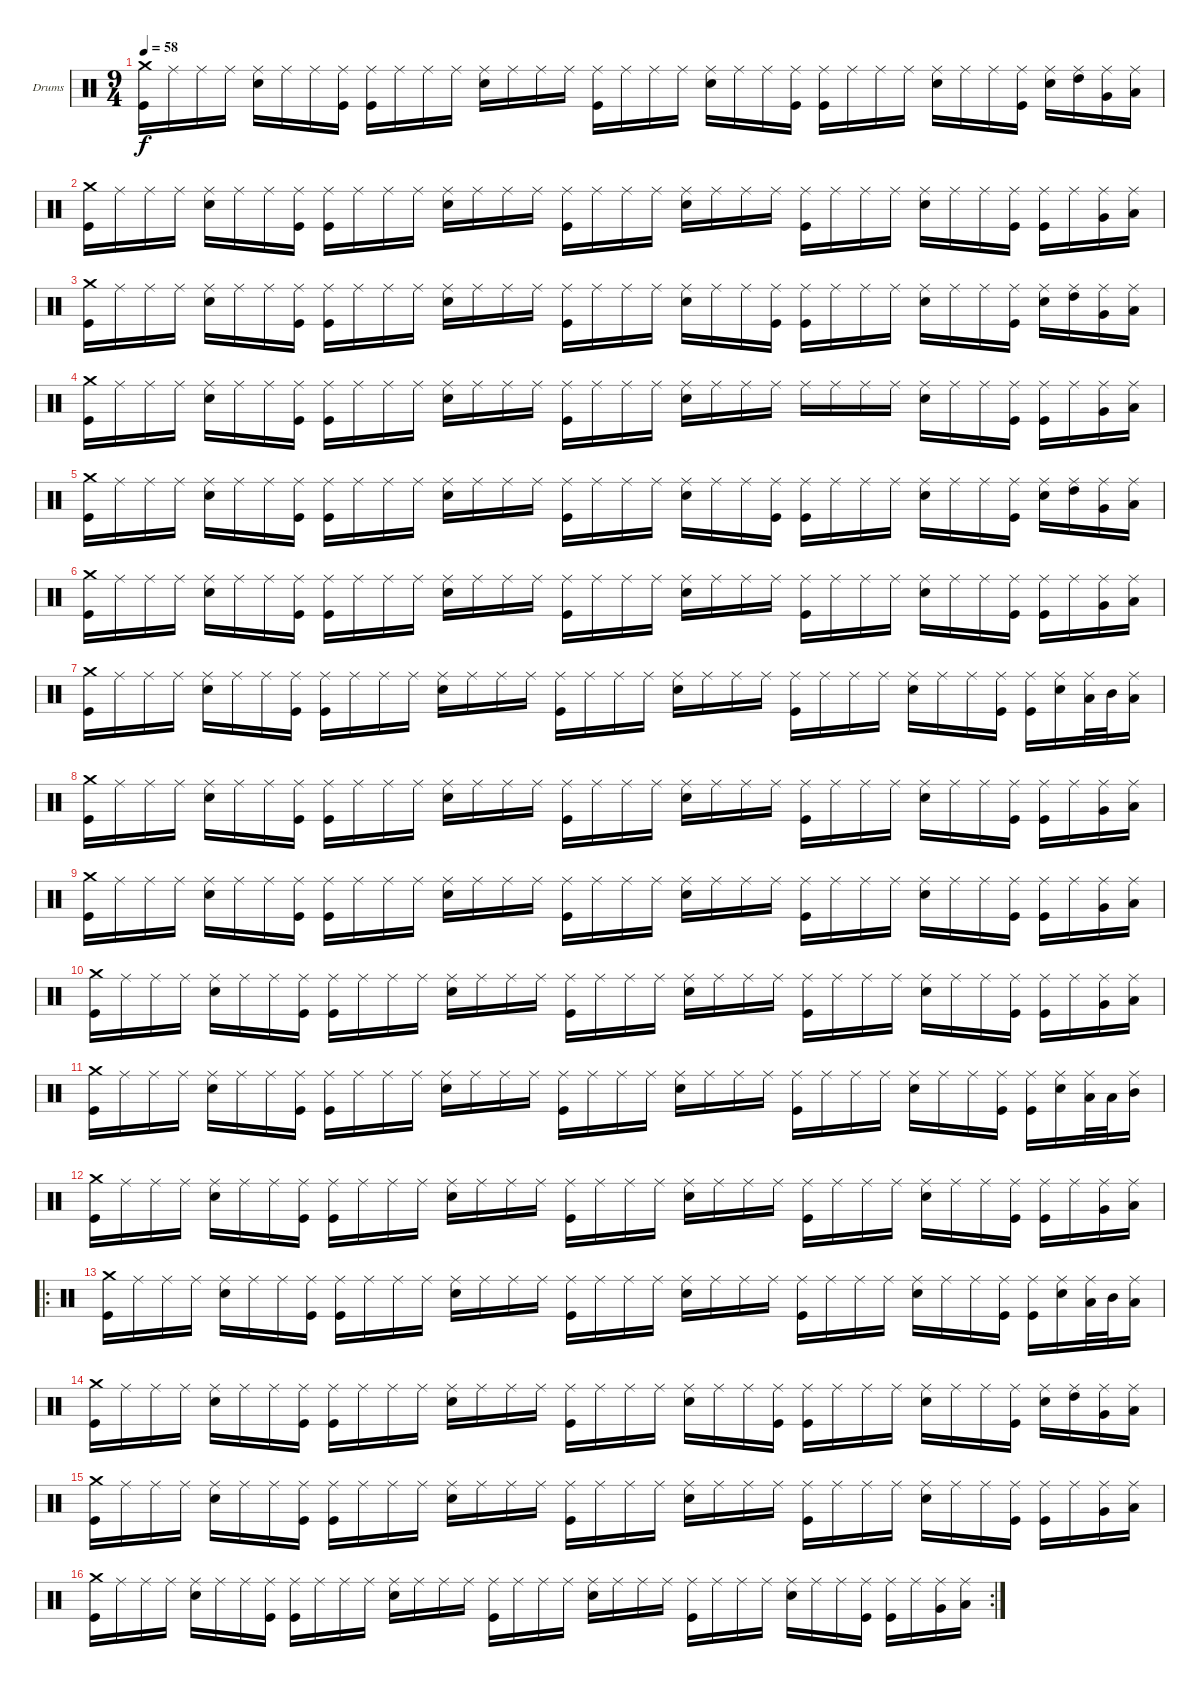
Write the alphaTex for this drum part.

\defaultSystemsLayout 4
\bracketExtendMode groupsimilarinstruments
\firstSystemTrackNameOrientation horizontal
\otherSystemsTrackNameOrientation horizontal
\track ("Drumkit" "Drums") {instrument percussion}
\staff {score}
\articulation defaults
\ts (9 4)
\tempo 58
\clef neutral
\scale
0.333333
\ks c
("Crash medium (hit)" "Kick (hit)").16{dy f} "Ride (middle)".16 "Ride (middle)".16 "Ride (middle)".16 ("Ride (middle)" "Snare (hit) 2").16 "Ride (middle)".16 "Ride (middle)".16 ("Ride (middle)" "Kick (hit)").16 ("Ride (middle)" "Kick (hit)").16 "Ride (middle)".16 "Ride (middle)".16 "Ride (middle)".16 ("Ride (middle)" "Snare (hit) 2").16 "Ride (middle)".16 "Ride (middle)".16 "Ride (middle)".16 ("Ride (middle)" "Kick (hit)").16 "Ride (middle)".16 "Ride (middle)".16 "Ride (middle)".16 ("Ride (middle)" "Snare (hit) 2").16 "Ride (middle)".16 "Ride (middle)".16 ("Ride (middle)" "Kick (hit)").16 ("Ride (middle)" "Kick (hit)").16 "Ride (middle)".16 "Ride (middle)".16 "Ride (middle)".16 ("Ride (middle)" "Snare (hit) 2").16 "Ride (middle)".16 "Ride (middle)".16 ("Ride (middle)" "Kick (hit)").16 ("Ride (middle)" "Snare (hit) 2").16 ("Ride (middle)" "High Tom (hit)").16 ("Ride (middle)" "Very Low Tom (hit)").16 ("Ride (middle)" "Low Tom (hit)").16 |
\scale
0.333333 ("Crash medium (hit)" "Kick (hit)").16 "Ride (middle)".16 "Ride (middle)".16 "Ride (middle)".16 ("Ride (middle)" "Snare (hit) 2").16 "Ride (middle)".16 "Ride (middle)".16 ("Ride (middle)" "Kick (hit)").16 ("Ride (middle)" "Kick (hit)").16 "Ride (middle)".16 "Ride (middle)".16 "Ride (middle)".16 ("Ride (middle)" "Snare (hit) 2").16 "Ride (middle)".16 "Ride (middle)".16 "Ride (middle)".16 ("Ride (middle)" "Kick (hit)").16 "Ride (middle)".16 "Ride (middle)".16 "Ride (middle)".16 ("Ride (middle)" "Snare (hit) 2").16 "Ride (middle)".16 "Ride (middle)".16 "Ride (middle)".16 ("Ride (middle)" "Kick (hit)").16 "Ride (middle)".16 "Ride (middle)".16 "Ride (middle)".16 ("Ride (middle)" "Snare (hit) 2").16 "Ride (middle)".16 "Ride (middle)".16 ("Ride (middle)" "Kick (hit)").16 ("Ride (middle)" "Kick (hit)").16 "Ride (middle)".16 ("Ride (middle)" "Very Low Tom (hit)").16 ("Ride (middle)" "Low Tom (hit)").16 |
\scale
0.333333 ("Crash medium (hit)" "Kick (hit)").16 "Ride (middle)".16 "Ride (middle)".16 "Ride (middle)".16 ("Ride (middle)" "Snare (hit) 2").16 "Ride (middle)".16 "Ride (middle)".16 ("Ride (middle)" "Kick (hit)").16 ("Ride (middle)" "Kick (hit)").16 "Ride (middle)".16 "Ride (middle)".16 "Ride (middle)".16 ("Ride (middle)" "Snare (hit) 2").16 "Ride (middle)".16 "Ride (middle)".16 "Ride (middle)".16 ("Ride (middle)" "Kick (hit)").16 "Ride (middle)".16 "Ride (middle)".16 "Ride (middle)".16 ("Ride (middle)" "Snare (hit) 2").16 "Ride (middle)".16 "Ride (middle)".16 ("Ride (middle)" "Kick (hit)").16 ("Ride (middle)" "Kick (hit)").16 "Ride (middle)".16 "Ride (middle)".16 "Ride (middle)".16 ("Ride (middle)" "Snare (hit) 2").16 "Ride (middle)".16 "Ride (middle)".16 ("Ride (middle)" "Kick (hit)").16 ("Ride (middle)" "Snare (hit) 2").16 ("Ride (middle)" "High Tom (hit)").16 ("Ride (middle)" "Very Low Tom (hit)").16 ("Ride (middle)" "Low Tom (hit)").16 |
\scale
0.333333 ("Crash medium (hit)" "Kick (hit)").16 "Ride (middle)".16 "Ride (middle)".16 "Ride (middle)".16 ("Ride (middle)" "Snare (hit) 2").16 "Ride (middle)".16 "Ride (middle)".16 ("Ride (middle)" "Kick (hit)").16 ("Ride (middle)" "Kick (hit)").16 "Ride (middle)".16 "Ride (middle)".16 "Ride (middle)".16 ("Ride (middle)" "Snare (hit) 2").16 "Ride (middle)".16 "Ride (middle)".16 "Ride (middle)".16 ("Ride (middle)" "Kick (hit)").16 "Ride (middle)".16 "Ride (middle)".16 "Ride (middle)".16 ("Ride (middle)" "Snare (hit) 2").16 "Ride (middle)".16 "Ride (middle)".16 "Ride (middle)".16 "Ride (middle)".16 "Ride (middle)".16 "Ride (middle)".16 "Ride (middle)".16 ("Ride (middle)" "Snare (hit) 2").16 "Ride (middle)".16 "Ride (middle)".16 ("Ride (middle)" "Kick (hit)").16 ("Ride (middle)" "Kick (hit)").16 "Ride (middle)".16 ("Ride (middle)" "Very Low Tom (hit)").16 ("Ride (middle)" "Low Tom (hit)").16 |
\scale
0.333333 ("Crash medium (hit)" "Kick (hit)").16 "Ride (middle)".16 "Ride (middle)".16 "Ride (middle)".16 ("Ride (middle)" "Snare (hit) 2").16 "Ride (middle)".16 "Ride (middle)".16 ("Ride (middle)" "Kick (hit)").16 ("Ride (middle)" "Kick (hit)").16 "Ride (middle)".16 "Ride (middle)".16 "Ride (middle)".16 ("Ride (middle)" "Snare (hit) 2").16 "Ride (middle)".16 "Ride (middle)".16 "Ride (middle)".16 ("Ride (middle)" "Kick (hit)").16 "Ride (middle)".16 "Ride (middle)".16 "Ride (middle)".16 ("Ride (middle)" "Snare (hit) 2").16 "Ride (middle)".16 "Ride (middle)".16 ("Ride (middle)" "Kick (hit)").16 ("Ride (middle)" "Kick (hit)").16 "Ride (middle)".16 "Ride (middle)".16 "Ride (middle)".16 ("Ride (middle)" "Snare (hit) 2").16 "Ride (middle)".16 "Ride (middle)".16 ("Ride (middle)" "Kick (hit)").16 ("Ride (middle)" "Snare (hit) 2").16 ("Ride (middle)" "High Tom (hit)").16 ("Ride (middle)" "Very Low Tom (hit)").16 ("Ride (middle)" "Low Tom (hit)").16 |
\scale
0.333333 ("Crash medium (hit)" "Kick (hit)").16 "Ride (middle)".16 "Ride (middle)".16 "Ride (middle)".16 ("Ride (middle)" "Snare (hit) 2").16 "Ride (middle)".16 "Ride (middle)".16 ("Ride (middle)" "Kick (hit)").16 ("Ride (middle)" "Kick (hit)").16 "Ride (middle)".16 "Ride (middle)".16 "Ride (middle)".16 ("Ride (middle)" "Snare (hit) 2").16 "Ride (middle)".16 "Ride (middle)".16 "Ride (middle)".16 ("Ride (middle)" "Kick (hit)").16 "Ride (middle)".16 "Ride (middle)".16 "Ride (middle)".16 ("Ride (middle)" "Snare (hit) 2").16 "Ride (middle)".16 "Ride (middle)".16 "Ride (middle)".16 ("Ride (middle)" "Kick (hit)").16 "Ride (middle)".16 "Ride (middle)".16 "Ride (middle)".16 ("Ride (middle)" "Snare (hit) 2").16 "Ride (middle)".16 "Ride (middle)".16 ("Ride (middle)" "Kick (hit)").16 ("Ride (middle)" "Kick (hit)").16 "Ride (middle)".16 ("Ride (middle)" "Very Low Tom (hit)").16 ("Ride (middle)" "Low Tom (hit)").16 |
\scale
0.333333 ("Crash medium (hit)" "Kick (hit)").16 "Ride (middle)".16 "Ride (middle)".16 "Ride (middle)".16 ("Ride (middle)" "Snare (hit) 2").16 "Ride (middle)".16 "Ride (middle)".16 ("Ride (middle)" "Kick (hit)").16 ("Ride (middle)" "Kick (hit)").16 "Ride (middle)".16 "Ride (middle)".16 "Ride (middle)".16 ("Ride (middle)" "Snare (hit) 2").16 "Ride (middle)".16 "Ride (middle)".16 "Ride (middle)".16 ("Ride (middle)" "Kick (hit)").16 "Ride (middle)".16 "Ride (middle)".16 "Ride (middle)".16 ("Ride (middle)" "Snare (hit) 2").16 "Ride (middle)".16 "Ride (middle)".16 "Ride (middle)".16 ("Ride (middle)" "Kick (hit)").16 "Ride (middle)".16 "Ride (middle)".16 "Ride (middle)".16 ("Ride (middle)" "Snare (hit) 2").16 "Ride (middle)".16 "Ride (middle)".16 ("Ride (middle)" "Kick (hit)").16 ("Ride (middle)" "Kick (hit)").16 ("Ride (middle)" "Snare (hit) 2").16 ("Ride (middle)" "Low Tom (hit)").32 "Mid Tom (hit)".32 ("Ride (middle)" "Low Tom (hit)").16 |
\scale
0.333333 ("Crash medium (hit)" "Kick (hit)").16 "Ride (middle)".16 "Ride (middle)".16 "Ride (middle)".16 ("Ride (middle)" "Snare (hit) 2").16 "Ride (middle)".16 "Ride (middle)".16 ("Ride (middle)" "Kick (hit)").16 ("Ride (middle)" "Kick (hit)").16 "Ride (middle)".16 "Ride (middle)".16 "Ride (middle)".16 ("Ride (middle)" "Snare (hit) 2").16 "Ride (middle)".16 "Ride (middle)".16 "Ride (middle)".16 ("Ride (middle)" "Kick (hit)").16 "Ride (middle)".16 "Ride (middle)".16 "Ride (middle)".16 ("Ride (middle)" "Snare (hit) 2").16 "Ride (middle)".16 "Ride (middle)".16 "Ride (middle)".16 ("Ride (middle)" "Kick (hit)").16 "Ride (middle)".16 "Ride (middle)".16 "Ride (middle)".16 ("Ride (middle)" "Snare (hit) 2").16 "Ride (middle)".16 "Ride (middle)".16 ("Ride (middle)" "Kick (hit)").16 ("Ride (middle)" "Kick (hit)").16 "Ride (middle)".16 ("Ride (middle)" "Very Low Tom (hit)").16 ("Ride (middle)" "Low Tom (hit)").16 |
\scale
0.333333 ("Crash medium (hit)" "Kick (hit)").16 "Ride (middle)".16 "Ride (middle)".16 "Ride (middle)".16 ("Ride (middle)" "Snare (hit) 2").16 "Ride (middle)".16 "Ride (middle)".16 ("Ride (middle)" "Kick (hit)").16 ("Ride (middle)" "Kick (hit)").16 "Ride (middle)".16 "Ride (middle)".16 "Ride (middle)".16 ("Ride (middle)" "Snare (hit) 2").16 "Ride (middle)".16 "Ride (middle)".16 "Ride (middle)".16 ("Ride (middle)" "Kick (hit)").16 "Ride (middle)".16 "Ride (middle)".16 "Ride (middle)".16 ("Ride (middle)" "Snare (hit) 2").16 "Ride (middle)".16 "Ride (middle)".16 "Ride (middle)".16 ("Ride (middle)" "Kick (hit)").16 "Ride (middle)".16 "Ride (middle)".16 "Ride (middle)".16 ("Ride (middle)" "Snare (hit) 2").16 "Ride (middle)".16 "Ride (middle)".16 ("Ride (middle)" "Kick (hit)").16 ("Ride (middle)" "Kick (hit)").16 "Ride (middle)".16 ("Ride (middle)" "Very Low Tom (hit)").16 ("Ride (middle)" "Low Tom (hit)").16 |
\scale
0.333333 ("Crash medium (hit)" "Kick (hit)").16 "Ride (middle)".16 "Ride (middle)".16 "Ride (middle)".16 ("Ride (middle)" "Snare (hit) 2").16 "Ride (middle)".16 "Ride (middle)".16 ("Ride (middle)" "Kick (hit)").16 ("Ride (middle)" "Kick (hit)").16 "Ride (middle)".16 "Ride (middle)".16 "Ride (middle)".16 ("Ride (middle)" "Snare (hit) 2").16 "Ride (middle)".16 "Ride (middle)".16 "Ride (middle)".16 ("Ride (middle)" "Kick (hit)").16 "Ride (middle)".16 "Ride (middle)".16 "Ride (middle)".16 ("Ride (middle)" "Snare (hit) 2").16 "Ride (middle)".16 "Ride (middle)".16 "Ride (middle)".16 ("Ride (middle)" "Kick (hit)").16 "Ride (middle)".16 "Ride (middle)".16 "Ride (middle)".16 ("Ride (middle)" "Snare (hit) 2").16 "Ride (middle)".16 "Ride (middle)".16 ("Ride (middle)" "Kick (hit)").16 ("Ride (middle)" "Kick (hit)").16 "Ride (middle)".16 ("Ride (middle)" "Very Low Tom (hit)").16 ("Ride (middle)" "Low Tom (hit)").16 |
\scale
0.333333 ("Crash medium (hit)" "Kick (hit)").16 "Ride (middle)".16 "Ride (middle)".16 "Ride (middle)".16 ("Ride (middle)" "Snare (hit) 2").16 "Ride (middle)".16 "Ride (middle)".16 ("Ride (middle)" "Kick (hit)").16 ("Ride (middle)" "Kick (hit)").16 "Ride (middle)".16 "Ride (middle)".16 "Ride (middle)".16 ("Ride (middle)" "Snare (hit) 2").16 "Ride (middle)".16 "Ride (middle)".16 "Ride (middle)".16 ("Ride (middle)" "Kick (hit)").16 "Ride (middle)".16 "Ride (middle)".16 "Ride (middle)".16 ("Ride (middle)" "Snare (hit) 2").16 "Ride (middle)".16 "Ride (middle)".16 "Ride (middle)".16 ("Ride (middle)" "Kick (hit)").16 "Ride (middle)".16 "Ride (middle)".16 "Ride (middle)".16 ("Ride (middle)" "Snare (hit) 2").16 "Ride (middle)".16 "Ride (middle)".16 ("Ride (middle)" "Kick (hit)").16 ("Ride (middle)" "Kick (hit)").16 ("Ride (middle)" "Snare (hit) 2").16 ("Ride (middle)" "Low Tom (hit)").32 "Low Tom (hit)".32 ("Ride (middle)" "Mid Tom (hit)").16 |
\scale
0.311111 ("Crash medium (hit)" "Kick (hit)").16 "Ride (middle)".16 "Ride (middle)".16 "Ride (middle)".16 ("Ride (middle)" "Snare (hit) 2").16 "Ride (middle)".16 "Ride (middle)".16 ("Ride (middle)" "Kick (hit)").16 ("Ride (middle)" "Kick (hit)").16 "Ride (middle)".16 "Ride (middle)".16 "Ride (middle)".16 ("Ride (middle)" "Snare (hit) 2").16 "Ride (middle)".16 "Ride (middle)".16 "Ride (middle)".16 ("Ride (middle)" "Kick (hit)").16 "Ride (middle)".16 "Ride (middle)".16 "Ride (middle)".16 ("Ride (middle)" "Snare (hit) 2").16 "Ride (middle)".16 "Ride (middle)".16 "Ride (middle)".16 ("Ride (middle)" "Kick (hit)").16 "Ride (middle)".16 "Ride (middle)".16 "Ride (middle)".16 ("Ride (middle)" "Snare (hit) 2").16 "Ride (middle)".16 "Ride (middle)".16 ("Ride (middle)" "Kick (hit)").16 ("Ride (middle)" "Kick (hit)").16 "Ride (middle)".16 ("Ride (middle)" "Very Low Tom (hit)").16 ("Ride (middle)" "Low Tom (hit)").16 |
\ro
\scale
0.377778 ("Crash medium (hit)" "Kick (hit)").16 "Ride (middle)".16 "Ride (middle)".16 "Ride (middle)".16 ("Ride (middle)" "Snare (hit) 2").16 "Ride (middle)".16 "Ride (middle)".16 ("Ride (middle)" "Kick (hit)").16 ("Ride (middle)" "Kick (hit)").16 "Ride (middle)".16 "Ride (middle)".16 "Ride (middle)".16 ("Ride (middle)" "Snare (hit) 2").16 "Ride (middle)".16 "Ride (middle)".16 "Ride (middle)".16 ("Ride (middle)" "Kick (hit)").16 "Ride (middle)".16 "Ride (middle)".16 "Ride (middle)".16 ("Ride (middle)" "Snare (hit) 2").16 "Ride (middle)".16 "Ride (middle)".16 "Ride (middle)".16 ("Ride (middle)" "Kick (hit)").16 "Ride (middle)".16 "Ride (middle)".16 "Ride (middle)".16 ("Ride (middle)" "Snare (hit) 2").16 "Ride (middle)".16 "Ride (middle)".16 ("Ride (middle)" "Kick (hit)").16 ("Ride (middle)" "Kick (hit)").16 ("Ride (middle)" "Snare (hit) 2").16 ("Ride (middle)" "Low Tom (hit)").32 "Mid Tom (hit)".32 ("Ride (middle)" "Low Tom (hit)").16 |
\scale
0.311111 ("Crash medium (hit)" "Kick (hit)").16 "Ride (middle)".16 "Ride (middle)".16 "Ride (middle)".16 ("Ride (middle)" "Snare (hit) 2").16 "Ride (middle)".16 "Ride (middle)".16 ("Ride (middle)" "Kick (hit)").16 ("Ride (middle)" "Kick (hit)").16 "Ride (middle)".16 "Ride (middle)".16 "Ride (middle)".16 ("Ride (middle)" "Snare (hit) 2").16 "Ride (middle)".16 "Ride (middle)".16 "Ride (middle)".16 ("Ride (middle)" "Kick (hit)").16 "Ride (middle)".16 "Ride (middle)".16 "Ride (middle)".16 ("Ride (middle)" "Snare (hit) 2").16 "Ride (middle)".16 "Ride (middle)".16 ("Ride (middle)" "Kick (hit)").16 ("Ride (middle)" "Kick (hit)").16 "Ride (middle)".16 "Ride (middle)".16 "Ride (middle)".16 ("Ride (middle)" "Snare (hit) 2").16 "Ride (middle)".16 "Ride (middle)".16 ("Ride (middle)" "Kick (hit)").16 ("Ride (middle)" "Snare (hit) 2").16 ("Ride (middle)" "High Tom (hit)").16 ("Ride (middle)" "Very Low Tom (hit)").16 ("Ride (middle)" "Low Tom (hit)").16 |
\scale
0.291667 ("Crash medium (hit)" "Kick (hit)").16 "Ride (middle)".16 "Ride (middle)".16 "Ride (middle)".16 ("Ride (middle)" "Snare (hit) 2").16 "Ride (middle)".16 "Ride (middle)".16 ("Ride (middle)" "Kick (hit)").16 ("Ride (middle)" "Kick (hit)").16 "Ride (middle)".16 "Ride (middle)".16 "Ride (middle)".16 ("Ride (middle)" "Snare (hit) 2").16 "Ride (middle)".16 "Ride (middle)".16 "Ride (middle)".16 ("Ride (middle)" "Kick (hit)").16 "Ride (middle)".16 "Ride (middle)".16 "Ride (middle)".16 ("Ride (middle)" "Snare (hit) 2").16 "Ride (middle)".16 "Ride (middle)".16 "Ride (middle)".16 ("Ride (middle)" "Kick (hit)").16 "Ride (middle)".16 "Ride (middle)".16 "Ride (middle)".16 ("Ride (middle)" "Snare (hit) 2").16 "Ride (middle)".16 "Ride (middle)".16 ("Ride (middle)" "Kick (hit)").16 ("Ride (middle)" "Kick (hit)").16 "Ride (middle)".16 ("Ride (middle)" "Very Low Tom (hit)").16 ("Ride (middle)" "Low Tom (hit)").16 |
\rc 2
\scale
0.322917 ("Crash medium (hit)" "Kick (hit)").16 "Ride (middle)".16 "Ride (middle)".16 "Ride (middle)".16 ("Ride (middle)" "Snare (hit) 2").16 "Ride (middle)".16 "Ride (middle)".16 ("Ride (middle)" "Kick (hit)").16 ("Ride (middle)" "Kick (hit)").16 "Ride (middle)".16 "Ride (middle)".16 "Ride (middle)".16 ("Ride (middle)" "Snare (hit) 2").16 "Ride (middle)".16 "Ride (middle)".16 "Ride (middle)".16 ("Ride (middle)" "Kick (hit)").16 "Ride (middle)".16 "Ride (middle)".16 "Ride (middle)".16 ("Ride (middle)" "Snare (hit) 2").16 "Ride (middle)".16 "Ride (middle)".16 "Ride (middle)".16 ("Ride (middle)" "Kick (hit)").16 "Ride (middle)".16 "Ride (middle)".16 "Ride (middle)".16 ("Ride (middle)" "Snare (hit) 2").16 "Ride (middle)".16 "Ride (middle)".16 ("Ride (middle)" "Kick (hit)").16 ("Ride (middle)" "Kick (hit)").16 "Ride (middle)".16 ("Ride (middle)" "Very Low Tom (hit)").16 ("Ride (middle)" "Low Tom (hit)").16
